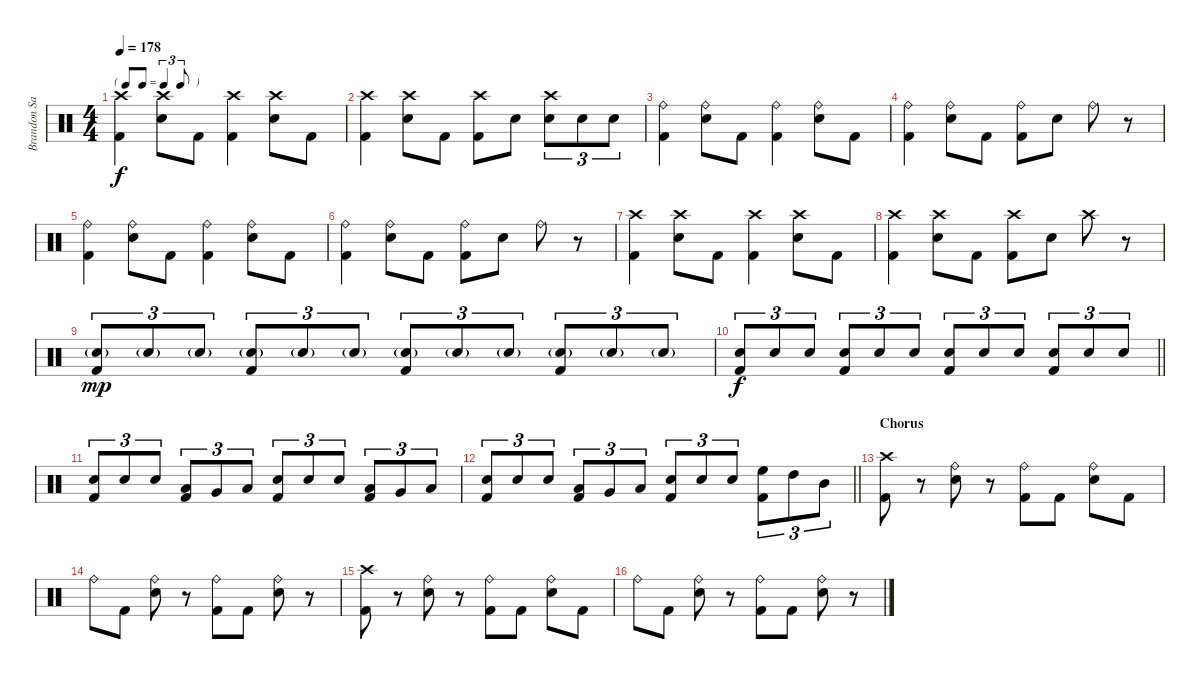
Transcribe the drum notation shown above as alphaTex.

\track ("Brandon Saller" "Brandon Sa") {instrument percussion}
\staff {score}
\articulation defaults
\ts (4 4)
\tf triplet8th
\tempo 178
\clef neutral
\ks c
("Crash high (hit)" "Kick (hit) 2").4{dy f} ("Crash high (hit)" "Electric Snare (hit)").8 "Kick (hit) 2".8 ("Crash high (hit)" "Kick (hit) 2").4 ("Crash high (hit)" "Electric Snare (hit)").8 "Kick (hit) 2".8 |
("Crash high (hit)" "Kick (hit) 2").4 ("Crash high (hit)" "Electric Snare (hit)").8 "Kick (hit) 2".8 ("Crash high (hit)" "Kick (hit) 2").8 "Electric Snare (hit)".8 ("Crash high (hit)" "Electric Snare (hit)").8{tu (3 2)} "Electric Snare (hit)".8{tu (3 2)} "Electric Snare (hit)".8{tu (3 2)} |
("Ride (bell)" "Kick (hit) 2").4 ("Ride (bell)" "Electric Snare (hit)").8 "Kick (hit) 2".8 ("Ride (bell)" "Kick (hit) 2").4 ("Ride (bell)" "Electric Snare (hit)").8 "Kick (hit) 2".8 |
("Ride (bell)" "Kick (hit) 2").4 ("Ride (bell)" "Electric Snare (hit)").8 "Kick (hit) 2".8 ("Ride (bell)" "Kick (hit) 2").8 "Electric Snare (hit)".8 "Ride (bell)".8 r.8 |
("Ride (bell)" "Kick (hit) 2").4 ("Ride (bell)" "Electric Snare (hit)").8 "Kick (hit) 2".8 ("Ride (bell)" "Kick (hit) 2").4 ("Ride (bell)" "Electric Snare (hit)").8 "Kick (hit) 2".8 |
("Ride (bell)" "Kick (hit) 2").4 ("Ride (bell)" "Electric Snare (hit)").8 "Kick (hit) 2".8 ("Ride (bell)" "Kick (hit) 2").8 "Electric Snare (hit)".8 "Ride (bell)".8 r.8 |
("Crash high (hit)" "Kick (hit) 2").4 ("Crash high (hit)" "Electric Snare (hit)").8 "Kick (hit) 2".8 ("Crash high (hit)" "Kick (hit) 2").4 ("Crash high (hit)" "Electric Snare (hit)").8 "Kick (hit) 2".8 |
("Crash high (hit)" "Kick (hit) 2").4 ("Crash high (hit)" "Electric Snare (hit)").8 "Kick (hit) 2".8 ("Crash high (hit)" "Kick (hit) 2").8 "Electric Snare (hit)".8 "Crash high (hit)".8 r.8 |
("Electric Snare (hit)"{g} "Kick (hit) 2").8{tu (3 2) dy mp} "Electric Snare (hit)"{g}.8{tu (3 2)} "Electric Snare (hit)"{g}.8{tu (3 2)} ("Electric Snare (hit)"{g} "Kick (hit) 2").8{tu (3 2)} "Electric Snare (hit)"{g}.8{tu (3 2)} "Electric Snare (hit)"{g}.8{tu (3 2)} ("Electric Snare (hit)"{g} "Kick (hit) 2").8{tu (3 2)} "Electric Snare (hit)"{g}.8{tu (3 2)} "Electric Snare (hit)"{g}.8{tu (3 2)} ("Electric Snare (hit)"{g} "Kick (hit) 2").8{tu (3 2)} "Electric Snare (hit)"{g}.8{tu (3 2)} "Electric Snare (hit)"{g}.8{tu (3 2)} |
\barLineRight lightlight
("Electric Snare (hit)" "Kick (hit) 2").8{tu (3 2) dy f} "Electric Snare (hit)".8{tu (3 2)} "Electric Snare (hit)".8{tu (3 2)} ("Electric Snare (hit)" "Kick (hit) 2").8{tu (3 2)} "Electric Snare (hit)".8{tu (3 2)} "Electric Snare (hit)".8{tu (3 2)} ("Electric Snare (hit)" "Kick (hit) 2").8{tu (3 2)} "Electric Snare (hit)".8{tu (3 2)} "Electric Snare (hit)".8{tu (3 2)} ("Electric Snare (hit)" "Kick (hit) 2").8{tu (3 2)} "Electric Snare (hit)".8{tu (3 2)} "Electric Snare (hit)".8{tu (3 2)} |
("Electric Snare (hit)" "Kick (hit) 2").8{tu (3 2)} "Electric Snare (hit)".8{tu (3 2)} "Electric Snare (hit)".8{tu (3 2)} ("Low Tom (hit)" "Kick (hit) 2").8{tu (3 2)} "Very Low Tom (hit)".8{tu (3 2)} "Low Floor Tom (hit)".8{tu (3 2)} ("Electric Snare (hit)" "Kick (hit) 2").8{tu (3 2)} "Electric Snare (hit)".8{tu (3 2)} "Electric Snare (hit)".8{tu (3 2)} ("Low Tom (hit)" "Kick (hit) 2").8{tu (3 2)} "Very Low Tom (hit)".8{tu (3 2)} "Low Floor Tom (hit)".8{tu (3 2)} |
\barLineRight lightlight
("Electric Snare (hit)" "Kick (hit) 2").8{tu (3 2)} "Electric Snare (hit)".8{tu (3 2)} "Electric Snare (hit)".8{tu (3 2)} ("Low Tom (hit)" "Kick (hit) 2").8{tu (3 2)} "Very Low Tom (hit)".8{tu (3 2)} "Low Floor Tom (hit)".8{tu (3 2)} ("Electric Snare (hit)" "Kick (hit) 2").8{tu (3 2)} "Electric Snare (hit)".8{tu (3 2)} "Electric Snare (hit)".8{tu (3 2)} ("High Floor Tom (hit)" "Kick (hit) 2").8{tu (3 2)} "High Tom (hit)".8{tu (3 2)} "Mid Tom (hit)".8{tu (3 2)} |
\section ("" "Chorus")
("Crash high (hit)" "Kick (hit) 2").8 r.8 ("Ride (bell)" "Electric Snare (hit)").8 r.8 ("Ride (bell)" "Kick (hit) 2").8 "Kick (hit) 2".8 ("Ride (bell)" "Electric Snare (hit)").8 "Kick (hit) 2".8 |
"Ride (bell)".8 "Kick (hit) 2".8 ("Ride (bell)" "Electric Snare (hit)").8 r.8 ("Ride (bell)" "Kick (hit) 2").8 "Kick (hit) 2".8 ("Ride (bell)" "Electric Snare (hit)").8 r.8 |
("Crash high (hit)" "Kick (hit) 2").8 r.8 ("Ride (bell)" "Electric Snare (hit)").8 r.8 ("Ride (bell)" "Kick (hit) 2").8 "Kick (hit) 2".8 ("Ride (bell)" "Electric Snare (hit)").8 "Kick (hit) 2".8 |
"Ride (bell)".8 "Kick (hit) 2".8 ("Ride (bell)" "Electric Snare (hit)").8 r.8 ("Ride (bell)" "Kick (hit) 2").8 "Kick (hit) 2".8 ("Ride (bell)" "Electric Snare (hit)").8 r.8
